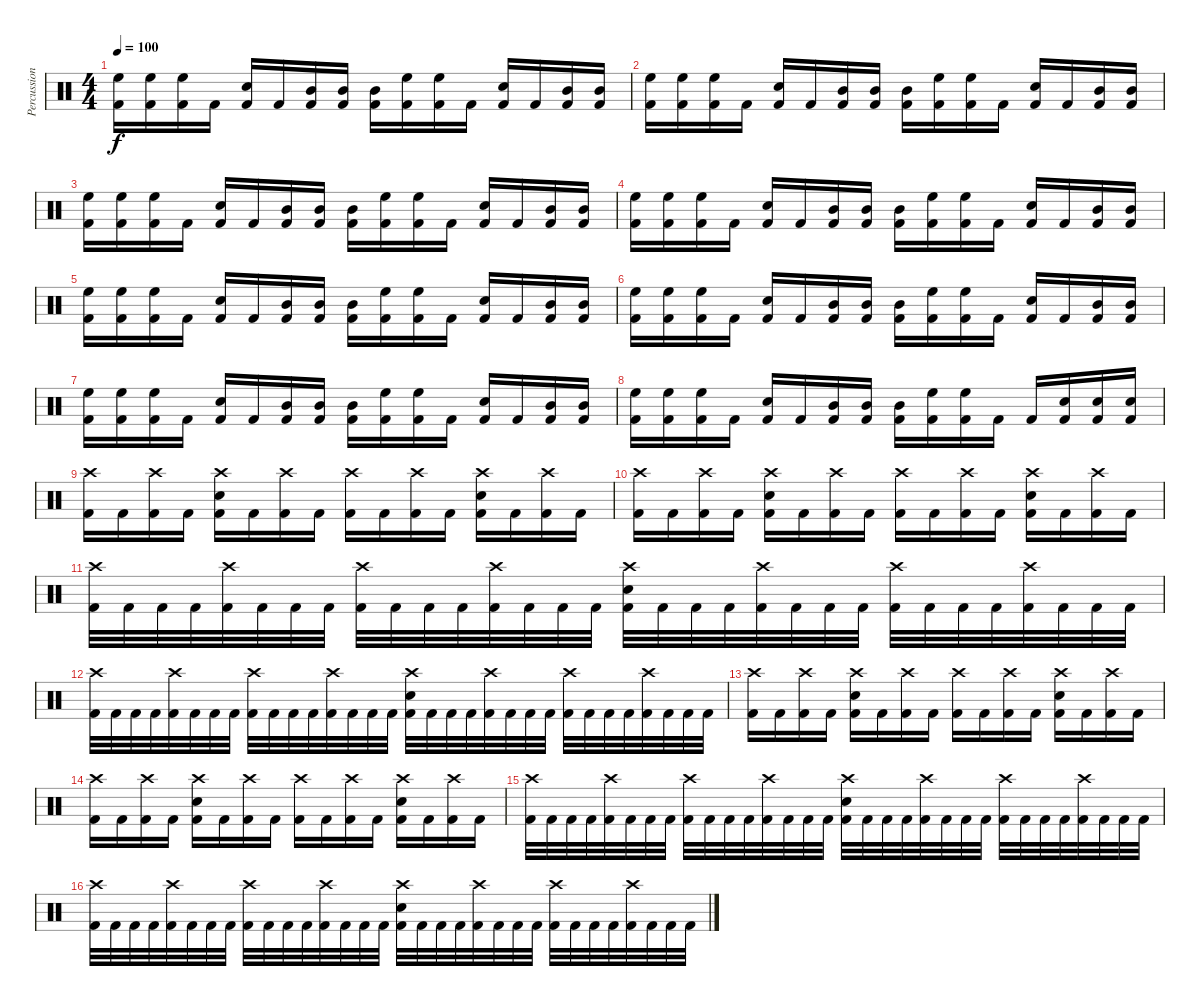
\track ("Percussion" "Percussion") {instrument percussion}
\staff {score}
\articulation defaults
\ts (4 4)
\tempo 100
\clef neutral
\ks c
("High Floor Tom (hit)" "Kick (hit) 2").16{dy f} ("High Floor Tom (hit)" "Kick (hit) 2").16 ("High Floor Tom (hit)" "Kick (hit) 2").16 "Kick (hit) 2".16 ("Electric Snare (hit)" "Kick (hit) 2").16 "Kick (hit) 2".16 ("Mid Tom (hit)" "Kick (hit) 2").16 ("Mid Tom (hit)" "Kick (hit) 2").16 ("Mid Tom (hit)" "Kick (hit) 2").16 ("High Floor Tom (hit)" "Kick (hit) 2").16 ("High Floor Tom (hit)" "Kick (hit) 2").16 "Kick (hit) 2".16 ("Electric Snare (hit)" "Kick (hit) 2").16 "Kick (hit) 2".16 ("Mid Tom (hit)" "Kick (hit) 2").16 ("Mid Tom (hit)" "Kick (hit) 2").16 |
("High Floor Tom (hit)" "Kick (hit) 2").16 ("High Floor Tom (hit)" "Kick (hit) 2").16 ("High Floor Tom (hit)" "Kick (hit) 2").16 "Kick (hit) 2".16 ("Electric Snare (hit)" "Kick (hit) 2").16 "Kick (hit) 2".16 ("Mid Tom (hit)" "Kick (hit) 2").16 ("Mid Tom (hit)" "Kick (hit) 2").16 ("Mid Tom (hit)" "Kick (hit) 2").16 ("High Floor Tom (hit)" "Kick (hit) 2").16 ("High Floor Tom (hit)" "Kick (hit) 2").16 "Kick (hit) 2".16 ("Electric Snare (hit)" "Kick (hit) 2").16 "Kick (hit) 2".16 ("Mid Tom (hit)" "Kick (hit) 2").16 ("Mid Tom (hit)" "Kick (hit) 2").16 |
("High Floor Tom (hit)" "Kick (hit) 2").16 ("High Floor Tom (hit)" "Kick (hit) 2").16 ("High Floor Tom (hit)" "Kick (hit) 2").16 "Kick (hit) 2".16 ("Electric Snare (hit)" "Kick (hit) 2").16 "Kick (hit) 2".16 ("Mid Tom (hit)" "Kick (hit) 2").16 ("Mid Tom (hit)" "Kick (hit) 2").16 ("Mid Tom (hit)" "Kick (hit) 2").16 ("High Floor Tom (hit)" "Kick (hit) 2").16 ("High Floor Tom (hit)" "Kick (hit) 2").16 "Kick (hit) 2".16 ("Electric Snare (hit)" "Kick (hit) 2").16 "Kick (hit) 2".16 ("Mid Tom (hit)" "Kick (hit) 2").16 ("Mid Tom (hit)" "Kick (hit) 2").16 |
("High Floor Tom (hit)" "Kick (hit) 2").16 ("High Floor Tom (hit)" "Kick (hit) 2").16 ("High Floor Tom (hit)" "Kick (hit) 2").16 "Kick (hit) 2".16 ("Electric Snare (hit)" "Kick (hit) 2").16 "Kick (hit) 2".16 ("Mid Tom (hit)" "Kick (hit) 2").16 ("Mid Tom (hit)" "Kick (hit) 2").16 ("Mid Tom (hit)" "Kick (hit) 2").16 ("High Floor Tom (hit)" "Kick (hit) 2").16 ("High Floor Tom (hit)" "Kick (hit) 2").16 "Kick (hit) 2".16 ("Electric Snare (hit)" "Kick (hit) 2").16 "Kick (hit) 2".16 ("Mid Tom (hit)" "Kick (hit) 2").16 ("Mid Tom (hit)" "Kick (hit) 2").16 |
("High Floor Tom (hit)" "Kick (hit) 2").16 ("High Floor Tom (hit)" "Kick (hit) 2").16 ("High Floor Tom (hit)" "Kick (hit) 2").16 "Kick (hit) 2".16 ("Electric Snare (hit)" "Kick (hit) 2").16 "Kick (hit) 2".16 ("Mid Tom (hit)" "Kick (hit) 2").16 ("Mid Tom (hit)" "Kick (hit) 2").16 ("Mid Tom (hit)" "Kick (hit) 2").16 ("High Floor Tom (hit)" "Kick (hit) 2").16 ("High Floor Tom (hit)" "Kick (hit) 2").16 "Kick (hit) 2".16 ("Electric Snare (hit)" "Kick (hit) 2").16 "Kick (hit) 2".16 ("Mid Tom (hit)" "Kick (hit) 2").16 ("Mid Tom (hit)" "Kick (hit) 2").16 |
("High Floor Tom (hit)" "Kick (hit) 2").16 ("High Floor Tom (hit)" "Kick (hit) 2").16 ("High Floor Tom (hit)" "Kick (hit) 2").16 "Kick (hit) 2".16 ("Electric Snare (hit)" "Kick (hit) 2").16 "Kick (hit) 2".16 ("Mid Tom (hit)" "Kick (hit) 2").16 ("Mid Tom (hit)" "Kick (hit) 2").16 ("Mid Tom (hit)" "Kick (hit) 2").16 ("High Floor Tom (hit)" "Kick (hit) 2").16 ("High Floor Tom (hit)" "Kick (hit) 2").16 "Kick (hit) 2".16 ("Electric Snare (hit)" "Kick (hit) 2").16 "Kick (hit) 2".16 ("Mid Tom (hit)" "Kick (hit) 2").16 ("Mid Tom (hit)" "Kick (hit) 2").16 |
("High Floor Tom (hit)" "Kick (hit) 2").16 ("High Floor Tom (hit)" "Kick (hit) 2").16 ("High Floor Tom (hit)" "Kick (hit) 2").16 "Kick (hit) 2".16 ("Electric Snare (hit)" "Kick (hit) 2").16 "Kick (hit) 2".16 ("Mid Tom (hit)" "Kick (hit) 2").16 ("Mid Tom (hit)" "Kick (hit) 2").16 ("Mid Tom (hit)" "Kick (hit) 2").16 ("High Floor Tom (hit)" "Kick (hit) 2").16 ("High Floor Tom (hit)" "Kick (hit) 2").16 "Kick (hit) 2".16 ("Electric Snare (hit)" "Kick (hit) 2").16 "Kick (hit) 2".16 ("Mid Tom (hit)" "Kick (hit) 2").16 ("Mid Tom (hit)" "Kick (hit) 2").16 |
("High Floor Tom (hit)" "Kick (hit) 2").16 ("High Floor Tom (hit)" "Kick (hit) 2").16 ("High Floor Tom (hit)" "Kick (hit) 2").16 "Kick (hit) 2".16 ("Electric Snare (hit)" "Kick (hit) 2").16 "Kick (hit) 2".16 ("Mid Tom (hit)" "Kick (hit) 2").16 ("Mid Tom (hit)" "Kick (hit) 2").16 ("Mid Tom (hit)" "Kick (hit) 2").16 ("High Floor Tom (hit)" "Kick (hit) 2").16 ("High Floor Tom (hit)" "Kick (hit) 2").16 "Kick (hit) 2".16 "Kick (hit) 2".16 ("Electric Snare (hit)" "Kick (hit) 2").16 ("Electric Snare (hit)" "Kick (hit) 2").16 ("Electric Snare (hit)" "Kick (hit) 2").16 |
("Crash high (hit)" "Kick (hit) 2").16 "Kick (hit) 2".16 ("Crash high (hit)" "Kick (hit) 2").16 "Kick (hit) 2".16 ("Crash high (hit)" "Electric Snare (hit)" "Kick (hit) 2").16 "Kick (hit) 2".16 ("Crash high (hit)" "Kick (hit) 2").16 "Kick (hit) 2".16 ("Crash high (hit)" "Kick (hit) 2").16 "Kick (hit) 2".16 ("Crash high (hit)" "Kick (hit) 2").16 "Kick (hit) 2".16 ("Crash high (hit)" "Electric Snare (hit)" "Kick (hit) 2").16 "Kick (hit) 2".16 ("Crash high (hit)" "Kick (hit) 2").16 "Kick (hit) 2".16 |
("Crash high (hit)" "Kick (hit) 2").16 "Kick (hit) 2".16 ("Crash high (hit)" "Kick (hit) 2").16 "Kick (hit) 2".16 ("Crash high (hit)" "Electric Snare (hit)" "Kick (hit) 2").16 "Kick (hit) 2".16 ("Crash high (hit)" "Kick (hit) 2").16 "Kick (hit) 2".16 ("Crash high (hit)" "Kick (hit) 2").16 "Kick (hit) 2".16 ("Crash high (hit)" "Kick (hit) 2").16 "Kick (hit) 2".16 ("Crash high (hit)" "Electric Snare (hit)" "Kick (hit) 2").16 "Kick (hit) 2".16 ("Crash high (hit)" "Kick (hit) 2").16 "Kick (hit) 2".16 |
("Crash high (hit)" "Kick (hit) 2").32 "Kick (hit) 2".32 "Kick (hit) 2".32 "Kick (hit) 2".32 ("Crash high (hit)" "Kick (hit) 2").32 "Kick (hit) 2".32 "Kick (hit) 2".32 "Kick (hit) 2".32 ("Crash high (hit)" "Kick (hit) 2").32 "Kick (hit) 2".32 "Kick (hit) 2".32 "Kick (hit) 2".32 ("Crash high (hit)" "Kick (hit) 2").32 "Kick (hit) 2".32 "Kick (hit) 2".32 "Kick (hit) 2".32 ("Crash high (hit)" "Electric Snare (hit)" "Kick (hit) 2").32 "Kick (hit) 2".32 "Kick (hit) 2".32 "Kick (hit) 2".32 ("Crash high (hit)" "Kick (hit) 2").32 "Kick (hit) 2".32 "Kick (hit) 2".32 "Kick (hit) 2".32 ("Crash high (hit)" "Kick (hit) 2").32 "Kick (hit) 2".32 "Kick (hit) 2".32 "Kick (hit) 2".32 ("Crash high (hit)" "Kick (hit) 2").32 "Kick (hit) 2".32 "Kick (hit) 2".32 "Kick (hit) 2".32 |
("Crash high (hit)" "Kick (hit) 2").32 "Kick (hit) 2".32 "Kick (hit) 2".32 "Kick (hit) 2".32 ("Crash high (hit)" "Kick (hit) 2").32 "Kick (hit) 2".32 "Kick (hit) 2".32 "Kick (hit) 2".32 ("Crash high (hit)" "Kick (hit) 2").32 "Kick (hit) 2".32 "Kick (hit) 2".32 "Kick (hit) 2".32 ("Crash high (hit)" "Kick (hit) 2").32 "Kick (hit) 2".32 "Kick (hit) 2".32 "Kick (hit) 2".32 ("Crash high (hit)" "Electric Snare (hit)" "Kick (hit) 2").32 "Kick (hit) 2".32 "Kick (hit) 2".32 "Kick (hit) 2".32 ("Crash high (hit)" "Kick (hit) 2").32 "Kick (hit) 2".32 "Kick (hit) 2".32 "Kick (hit) 2".32 ("Crash high (hit)" "Kick (hit) 2").32 "Kick (hit) 2".32 "Kick (hit) 2".32 "Kick (hit) 2".32 ("Crash high (hit)" "Kick (hit) 2").32 "Kick (hit) 2".32 "Kick (hit) 2".32 "Kick (hit) 2".32 |
("Crash high (hit)" "Kick (hit) 2").16 "Kick (hit) 2".16 ("Crash high (hit)" "Kick (hit) 2").16 "Kick (hit) 2".16 ("Crash high (hit)" "Electric Snare (hit)" "Kick (hit) 2").16 "Kick (hit) 2".16 ("Crash high (hit)" "Kick (hit) 2").16 "Kick (hit) 2".16 ("Crash high (hit)" "Kick (hit) 2").16 "Kick (hit) 2".16 ("Crash high (hit)" "Kick (hit) 2").16 "Kick (hit) 2".16 ("Crash high (hit)" "Electric Snare (hit)" "Kick (hit) 2").16 "Kick (hit) 2".16 ("Crash high (hit)" "Kick (hit) 2").16 "Kick (hit) 2".16 |
("Crash high (hit)" "Kick (hit) 2").16 "Kick (hit) 2".16 ("Crash high (hit)" "Kick (hit) 2").16 "Kick (hit) 2".16 ("Crash high (hit)" "Electric Snare (hit)" "Kick (hit) 2").16 "Kick (hit) 2".16 ("Crash high (hit)" "Kick (hit) 2").16 "Kick (hit) 2".16 ("Crash high (hit)" "Kick (hit) 2").16 "Kick (hit) 2".16 ("Crash high (hit)" "Kick (hit) 2").16 "Kick (hit) 2".16 ("Crash high (hit)" "Electric Snare (hit)" "Kick (hit) 2").16 "Kick (hit) 2".16 ("Crash high (hit)" "Kick (hit) 2").16 "Kick (hit) 2".16 |
("Crash high (hit)" "Kick (hit) 2").32 "Kick (hit) 2".32 "Kick (hit) 2".32 "Kick (hit) 2".32 ("Crash high (hit)" "Kick (hit) 2").32 "Kick (hit) 2".32 "Kick (hit) 2".32 "Kick (hit) 2".32 ("Crash high (hit)" "Kick (hit) 2").32 "Kick (hit) 2".32 "Kick (hit) 2".32 "Kick (hit) 2".32 ("Crash high (hit)" "Kick (hit) 2").32 "Kick (hit) 2".32 "Kick (hit) 2".32 "Kick (hit) 2".32 ("Crash high (hit)" "Electric Snare (hit)" "Kick (hit) 2").32 "Kick (hit) 2".32 "Kick (hit) 2".32 "Kick (hit) 2".32 ("Crash high (hit)" "Kick (hit) 2").32 "Kick (hit) 2".32 "Kick (hit) 2".32 "Kick (hit) 2".32 ("Crash high (hit)" "Kick (hit) 2").32 "Kick (hit) 2".32 "Kick (hit) 2".32 "Kick (hit) 2".32 ("Crash high (hit)" "Kick (hit) 2").32 "Kick (hit) 2".32 "Kick (hit) 2".32 "Kick (hit) 2".32 |
("Crash high (hit)" "Kick (hit) 2").32 "Kick (hit) 2".32 "Kick (hit) 2".32 "Kick (hit) 2".32 ("Crash high (hit)" "Kick (hit) 2").32 "Kick (hit) 2".32 "Kick (hit) 2".32 "Kick (hit) 2".32 ("Crash high (hit)" "Kick (hit) 2").32 "Kick (hit) 2".32 "Kick (hit) 2".32 "Kick (hit) 2".32 ("Crash high (hit)" "Kick (hit) 2").32 "Kick (hit) 2".32 "Kick (hit) 2".32 "Kick (hit) 2".32 ("Crash high (hit)" "Electric Snare (hit)" "Kick (hit) 2").32 "Kick (hit) 2".32 "Kick (hit) 2".32 "Kick (hit) 2".32 ("Crash high (hit)" "Kick (hit) 2").32 "Kick (hit) 2".32 "Kick (hit) 2".32 "Kick (hit) 2".32 ("Crash high (hit)" "Kick (hit) 2").32 "Kick (hit) 2".32 "Kick (hit) 2".32 "Kick (hit) 2".32 ("Crash high (hit)" "Kick (hit) 2").32 "Kick (hit) 2".32 "Kick (hit) 2".32 "Kick (hit) 2".32
